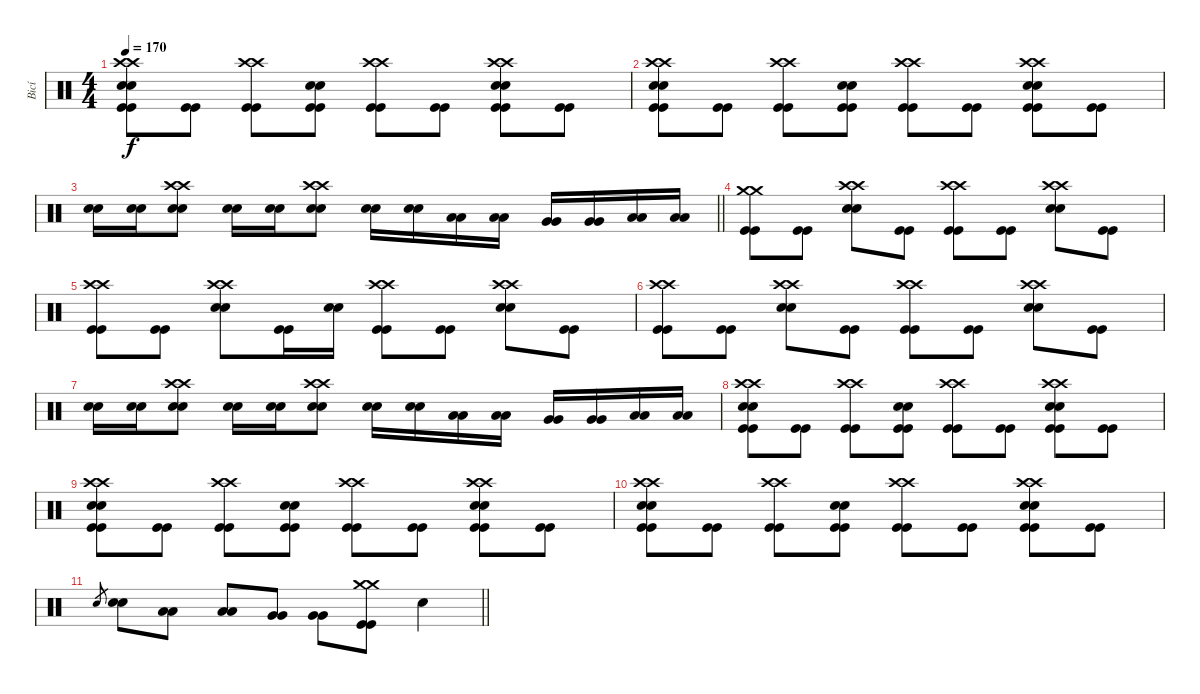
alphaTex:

\track ("Bicí" "Bicí") {instrument percussion}
\staff {score}
\articulation defaults
\ts (4 4)
\tempo 170
\clef neutral
\ks c
("Crash high (hit)" "Crash high (hit)" "Electric Snare (hit)" "Electric Snare (hit)" "Kick (hit)" "Kick (hit)").8{dy f} ("Kick (hit)" "Kick (hit)").8 ("Crash high (hit)" "Crash high (hit)" "Kick (hit)" "Kick (hit)").8 ("Electric Snare (hit)" "Electric Snare (hit)" "Kick (hit)" "Kick (hit)").8 ("Crash high (hit)" "Crash high (hit)" "Kick (hit)" "Kick (hit)").8 ("Kick (hit)" "Kick (hit)").8 ("Crash high (hit)" "Crash high (hit)" "Electric Snare (hit)" "Electric Snare (hit)" "Kick (hit)" "Kick (hit)").8 ("Kick (hit)" "Kick (hit)").8 |
("Crash high (hit)" "Crash high (hit)" "Electric Snare (hit)" "Electric Snare (hit)" "Kick (hit)" "Kick (hit)").8 ("Kick (hit)" "Kick (hit)").8 ("Crash high (hit)" "Crash high (hit)" "Kick (hit)" "Kick (hit)").8 ("Electric Snare (hit)" "Electric Snare (hit)" "Kick (hit)" "Kick (hit)").8 ("Crash high (hit)" "Crash high (hit)" "Kick (hit)" "Kick (hit)").8 ("Kick (hit)" "Kick (hit)").8 ("Crash high (hit)" "Crash high (hit)" "Electric Snare (hit)" "Electric Snare (hit)" "Kick (hit)" "Kick (hit)").8 ("Kick (hit)" "Kick (hit)").8 |
\barLineRight lightlight
("Electric Snare (hit)" "Electric Snare (hit)").16 ("Electric Snare (hit)" "Electric Snare (hit)").16 ("Crash high (hit)" "Crash high (hit)" "Electric Snare (hit)" "Electric Snare (hit)").8 ("Electric Snare (hit)" "Electric Snare (hit)").16 ("Electric Snare (hit)" "Electric Snare (hit)").16 ("Crash high (hit)" "Crash high (hit)" "Electric Snare (hit)" "Electric Snare (hit)").8 ("Electric Snare (hit)" "Electric Snare (hit)").16 ("Electric Snare (hit)" "Electric Snare (hit)").16 ("Low Tom (hit)" "Low Tom (hit)").16 ("Low Tom (hit)" "Low Tom (hit)").16 ("Very Low Tom (hit)" "Very Low Tom (hit)").16 ("Very Low Tom (hit)" "Very Low Tom (hit)").16 ("Low Floor Tom (hit)" "Low Floor Tom (hit)").16 ("Low Floor Tom (hit)" "Low Floor Tom (hit)").16 |
("Crash medium (hit)" "Crash medium (hit)" "Kick (hit)" "Kick (hit)").8 ("Kick (hit)" "Kick (hit)").8 ("Crash high (hit)" "Crash high (hit)" "Electric Snare (hit)" "Electric Snare (hit)").8 ("Kick (hit)" "Kick (hit)").8 ("Crash high (hit)" "Crash high (hit)" "Kick (hit)" "Kick (hit)").8 ("Kick (hit)" "Kick (hit)").8 ("Crash high (hit)" "Crash high (hit)" "Electric Snare (hit)" "Electric Snare (hit)").8 ("Kick (hit)" "Kick (hit)").8 |
("Crash high (hit)" "Crash high (hit)" "Kick (hit)" "Kick (hit)").8 ("Kick (hit)" "Kick (hit)").8 ("Crash high (hit)" "Crash high (hit)" "Electric Snare (hit)" "Electric Snare (hit)").8 ("Kick (hit)" "Kick (hit)").16 ("Electric Snare (hit)" "Electric Snare (hit)").16 ("Crash high (hit)" "Crash high (hit)" "Kick (hit)" "Kick (hit)").8 ("Kick (hit)" "Kick (hit)").8 ("Crash high (hit)" "Crash high (hit)" "Electric Snare (hit)" "Electric Snare (hit)").8 ("Kick (hit)" "Kick (hit)").8 |
("Crash high (hit)" "Crash high (hit)" "Kick (hit)" "Kick (hit)").8 ("Kick (hit)" "Kick (hit)").8 ("Crash high (hit)" "Crash high (hit)" "Electric Snare (hit)" "Electric Snare (hit)").8 ("Kick (hit)" "Kick (hit)").8 ("Crash high (hit)" "Crash high (hit)" "Kick (hit)" "Kick (hit)").8 ("Kick (hit)" "Kick (hit)").8 ("Crash high (hit)" "Crash high (hit)" "Electric Snare (hit)" "Electric Snare (hit)").8 ("Kick (hit)" "Kick (hit)").8 |
("Electric Snare (hit)" "Electric Snare (hit)").16 ("Electric Snare (hit)" "Electric Snare (hit)").16 ("Crash high (hit)" "Crash high (hit)" "Electric Snare (hit)" "Electric Snare (hit)").8 ("Electric Snare (hit)" "Electric Snare (hit)").16 ("Electric Snare (hit)" "Electric Snare (hit)").16 ("Crash high (hit)" "Crash high (hit)" "Electric Snare (hit)" "Electric Snare (hit)").8 ("Electric Snare (hit)" "Electric Snare (hit)").16 ("Electric Snare (hit)" "Electric Snare (hit)").16 ("Low Tom (hit)" "Low Tom (hit)").16 ("Low Tom (hit)" "Low Tom (hit)").16 ("Very Low Tom (hit)" "Very Low Tom (hit)").16 ("Very Low Tom (hit)" "Very Low Tom (hit)").16 ("Low Floor Tom (hit)" "Low Floor Tom (hit)").16 ("Low Floor Tom (hit)" "Low Floor Tom (hit)").16 |
("Crash high (hit)" "Crash high (hit)" "Electric Snare (hit)" "Electric Snare (hit)" "Kick (hit)" "Kick (hit)").8 ("Kick (hit)" "Kick (hit)").8 ("Crash high (hit)" "Crash high (hit)" "Kick (hit)" "Kick (hit)").8 ("Electric Snare (hit)" "Electric Snare (hit)" "Kick (hit)" "Kick (hit)").8 ("Crash high (hit)" "Crash high (hit)" "Kick (hit)" "Kick (hit)").8 ("Kick (hit)" "Kick (hit)").8 ("Crash high (hit)" "Crash high (hit)" "Electric Snare (hit)" "Electric Snare (hit)" "Kick (hit)" "Kick (hit)").8 ("Kick (hit)" "Kick (hit)").8 |
("Crash high (hit)" "Crash high (hit)" "Electric Snare (hit)" "Electric Snare (hit)" "Kick (hit)" "Kick (hit)").8 ("Kick (hit)" "Kick (hit)").8 ("Crash high (hit)" "Crash high (hit)" "Kick (hit)" "Kick (hit)").8 ("Electric Snare (hit)" "Electric Snare (hit)" "Kick (hit)" "Kick (hit)").8 ("Crash high (hit)" "Crash high (hit)" "Kick (hit)" "Kick (hit)").8 ("Kick (hit)" "Kick (hit)").8 ("Crash high (hit)" "Crash high (hit)" "Electric Snare (hit)" "Electric Snare (hit)" "Kick (hit)" "Kick (hit)").8 ("Kick (hit)" "Kick (hit)").8 |
("Crash high (hit)" "Crash high (hit)" "Electric Snare (hit)" "Electric Snare (hit)" "Kick (hit)" "Kick (hit)").8 ("Kick (hit)" "Kick (hit)").8 ("Crash high (hit)" "Crash high (hit)" "Kick (hit)" "Kick (hit)").8 ("Electric Snare (hit)" "Electric Snare (hit)" "Kick (hit)" "Kick (hit)").8 ("Crash high (hit)" "Crash high (hit)" "Kick (hit)" "Kick (hit)").8 ("Kick (hit)" "Kick (hit)").8 ("Crash high (hit)" "Crash high (hit)" "Electric Snare (hit)" "Electric Snare (hit)" "Kick (hit)" "Kick (hit)").8 ("Kick (hit)" "Kick (hit)").8 |
\barLineRight lightlight "Electric Snare (hit)".8{gr}
("Electric Snare (hit)" "Electric Snare (hit)").8 ("Low Tom (hit)" "Low Tom (hit)").8 ("Low Tom (hit)" "Low Tom (hit)").8 ("Very Low Tom (hit)" "Very Low Tom (hit)").8 ("Very Low Tom (hit)" "Very Low Tom (hit)").8 ("Crash medium (hit)" "Crash medium (hit)" "Kick (hit)" "Kick (hit)").8 "Snare (hit)".4
